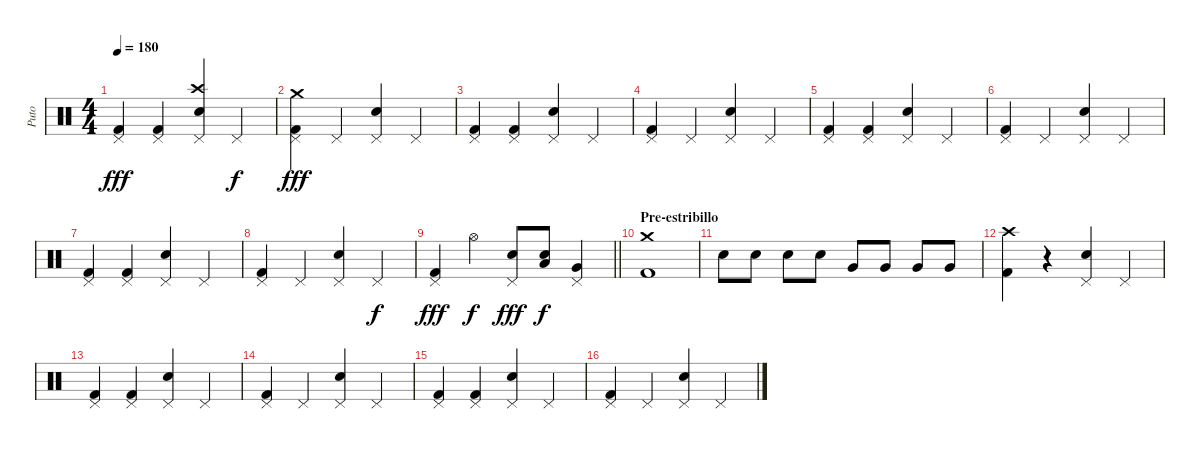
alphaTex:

\track ("Puto" "Puto") {instrument percussion}
\staff {score}
\articulation defaults
\ts (4 4)
\tempo 180
\clef neutral
\ks c
("Kick (hit) 2" "Pedal Hi-Hat (hit)").4{dy fff} ("Kick (hit) 2" "Pedal Hi-Hat (hit)").4 ("Crash high (hit)" "Snare (hit) 2" "Pedal Hi-Hat (hit)").4 "Pedal Hi-Hat (hit)".4{dy f} |
("Kick (hit) 2" "Crash medium (hit)" "Pedal Hi-Hat (hit)").4{dy fff} "Pedal Hi-Hat (hit)".4 ("Snare (hit) 2" "Pedal Hi-Hat (hit)").4 "Pedal Hi-Hat (hit)".4 |
("Kick (hit) 2" "Pedal Hi-Hat (hit)").4 ("Kick (hit) 2" "Pedal Hi-Hat (hit)").4 ("Snare (hit) 2" "Pedal Hi-Hat (hit)").4 "Pedal Hi-Hat (hit)".4 |
("Kick (hit) 2" "Pedal Hi-Hat (hit)").4 "Pedal Hi-Hat (hit)".4 ("Snare (hit) 2" "Pedal Hi-Hat (hit)").4 "Pedal Hi-Hat (hit)".4 |
("Kick (hit) 2" "Pedal Hi-Hat (hit)").4 ("Kick (hit) 2" "Pedal Hi-Hat (hit)").4 ("Snare (hit) 2" "Pedal Hi-Hat (hit)").4 "Pedal Hi-Hat (hit)".4 |
("Kick (hit) 2" "Pedal Hi-Hat (hit)").4 "Pedal Hi-Hat (hit)".4 ("Snare (hit) 2" "Pedal Hi-Hat (hit)").4 "Pedal Hi-Hat (hit)".4 |
("Kick (hit) 2" "Pedal Hi-Hat (hit)").4 ("Kick (hit) 2" "Pedal Hi-Hat (hit)").4 ("Snare (hit) 2" "Pedal Hi-Hat (hit)").4 "Pedal Hi-Hat (hit)".4 |
("Kick (hit) 2" "Pedal Hi-Hat (hit)").4 "Pedal Hi-Hat (hit)".4 ("Snare (hit) 2" "Pedal Hi-Hat (hit)").4 "Pedal Hi-Hat (hit)".4{dy f} |
\barLineRight lightlight
("Kick (hit) 2" "Pedal Hi-Hat (hit)").4{dy fff} "Hi-Hat (open)".4{dy f} ("Snare (hit) 2" "Pedal Hi-Hat (hit)").8{dy fff} ("Low Tom (hit)" "Snare (hit) 2").8{dy f} ("Very Low Tom (hit)" "Pedal Hi-Hat (hit)").4 |
\section ("" "Pre-estribillo")
("Kick (hit) 2" "Crash medium (hit)").1 |
"Snare (hit) 2".8 "Snare (hit) 2".8 "Snare (hit) 2".8 "Snare (hit) 2".8 "Very Low Tom (hit)".8 "Very Low Tom (hit)".8 "Very Low Tom (hit)".8 "Very Low Tom (hit)".8 |
("Kick (hit) 2" "Crash high (hit)").4 r.4 ("Snare (hit) 2" "Pedal Hi-Hat (hit)").4 "Pedal Hi-Hat (hit)".4 |
("Kick (hit) 2" "Pedal Hi-Hat (hit)").4 ("Kick (hit) 2" "Pedal Hi-Hat (hit)").4 ("Snare (hit) 2" "Pedal Hi-Hat (hit)").4 "Pedal Hi-Hat (hit)".4 |
("Kick (hit) 2" "Pedal Hi-Hat (hit)").4 "Pedal Hi-Hat (hit)".4 ("Snare (hit) 2" "Pedal Hi-Hat (hit)").4 "Pedal Hi-Hat (hit)".4 |
("Kick (hit) 2" "Pedal Hi-Hat (hit)").4 ("Kick (hit) 2" "Pedal Hi-Hat (hit)").4 ("Snare (hit) 2" "Pedal Hi-Hat (hit)").4 "Pedal Hi-Hat (hit)".4 |
("Kick (hit) 2" "Pedal Hi-Hat (hit)").4 "Pedal Hi-Hat (hit)".4 ("Snare (hit) 2" "Pedal Hi-Hat (hit)").4 "Pedal Hi-Hat (hit)".4
